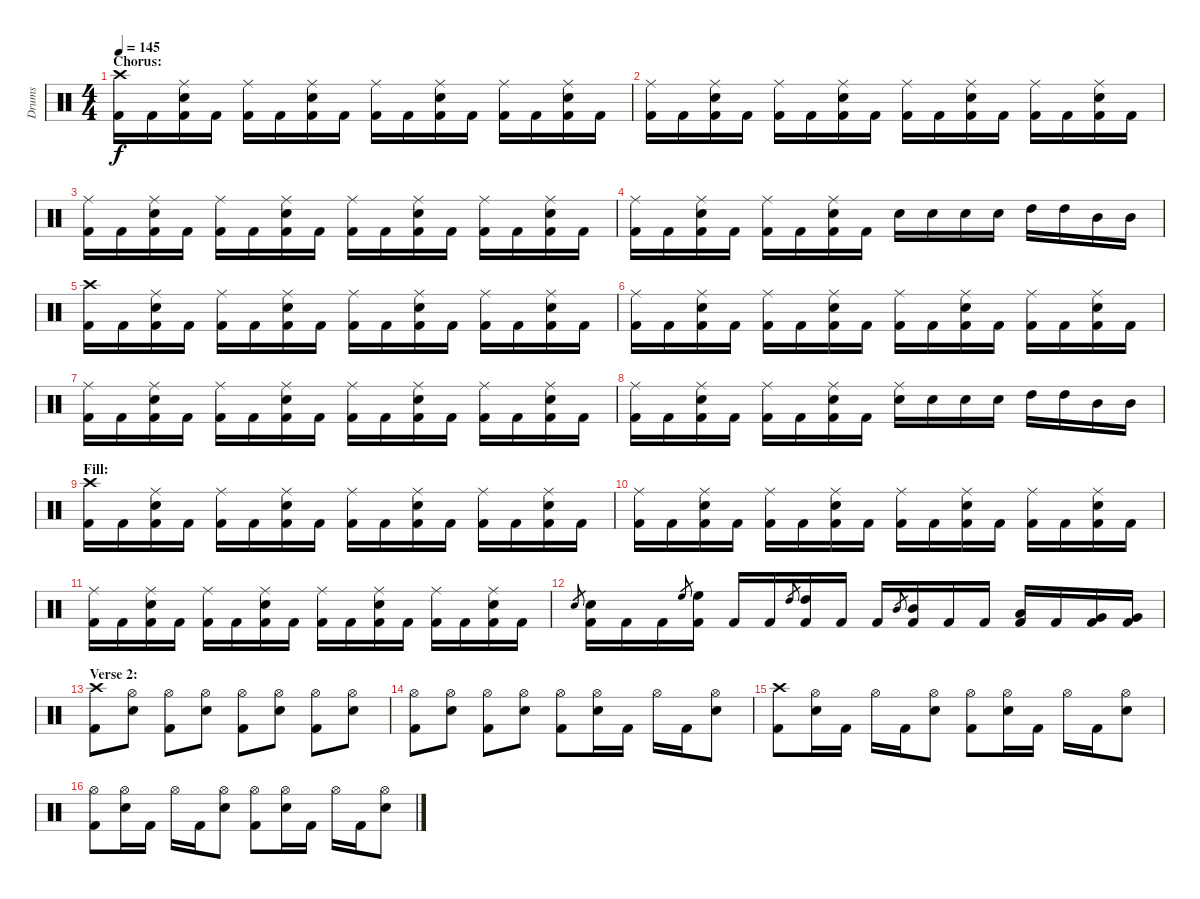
\track ("Drums" "Drums") {instrument percussion}
\staff {score}
\articulation defaults
\ts (4 4)
\section ("" "Chorus:")
\tempo 145
\clef neutral
\ks c
("Crash high (hit)" "Kick (hit) 2").16{dy f} "Kick (hit) 2".16 ("Ride (middle)" "Electric Snare (hit)" "Kick (hit) 2").16 "Kick (hit) 2".16 ("Ride (middle)" "Kick (hit) 2").16 "Kick (hit) 2".16 ("Ride (middle)" "Electric Snare (hit)" "Kick (hit) 2").16 "Kick (hit) 2".16 ("Ride (middle)" "Kick (hit) 2").16 "Kick (hit) 2".16 ("Ride (middle)" "Electric Snare (hit)" "Kick (hit) 2").16 "Kick (hit) 2".16 ("Ride (middle)" "Kick (hit) 2").16 "Kick (hit) 2".16 ("Ride (middle)" "Electric Snare (hit)" "Kick (hit) 2").16 "Kick (hit) 2".16 |
("Ride (middle)" "Kick (hit) 2").16 "Kick (hit) 2".16 ("Ride (middle)" "Electric Snare (hit)" "Kick (hit) 2").16 "Kick (hit) 2".16 ("Ride (middle)" "Kick (hit) 2").16 "Kick (hit) 2".16 ("Ride (middle)" "Electric Snare (hit)" "Kick (hit) 2").16 "Kick (hit) 2".16 ("Ride (middle)" "Kick (hit) 2").16 "Kick (hit) 2".16 ("Ride (middle)" "Electric Snare (hit)" "Kick (hit) 2").16 "Kick (hit) 2".16 ("Ride (middle)" "Kick (hit) 2").16 "Kick (hit) 2".16 ("Ride (middle)" "Electric Snare (hit)" "Kick (hit) 2").16 "Kick (hit) 2".16 |
("Ride (middle)" "Kick (hit) 2").16 "Kick (hit) 2".16 ("Ride (middle)" "Electric Snare (hit)" "Kick (hit) 2").16 "Kick (hit) 2".16 ("Ride (middle)" "Kick (hit) 2").16 "Kick (hit) 2".16 ("Ride (middle)" "Electric Snare (hit)" "Kick (hit) 2").16 "Kick (hit) 2".16 ("Ride (middle)" "Kick (hit) 2").16 "Kick (hit) 2".16 ("Ride (middle)" "Electric Snare (hit)" "Kick (hit) 2").16 "Kick (hit) 2".16 ("Ride (middle)" "Kick (hit) 2").16 "Kick (hit) 2".16 ("Ride (middle)" "Electric Snare (hit)" "Kick (hit) 2").16 "Kick (hit) 2".16 |
("Ride (middle)" "Kick (hit) 2").16 "Kick (hit) 2".16 ("Ride (middle)" "Electric Snare (hit)" "Kick (hit) 2").16 "Kick (hit) 2".16 ("Ride (middle)" "Kick (hit) 2").16 "Kick (hit) 2".16 ("Ride (middle)" "Electric Snare (hit)" "Kick (hit) 2").16 "Kick (hit) 2".16 "Electric Snare (hit)".16 "Electric Snare (hit)".16 "Electric Snare (hit)".16 "Electric Snare (hit)".16 "High Tom (hit)".16 "High Tom (hit)".16 "Mid Tom (hit)".16 "Mid Tom (hit)".16 |
("Crash high (hit)" "Kick (hit) 2").16 "Kick (hit) 2".16 ("Ride (middle)" "Electric Snare (hit)" "Kick (hit) 2").16 "Kick (hit) 2".16 ("Ride (middle)" "Kick (hit) 2").16 "Kick (hit) 2".16 ("Ride (middle)" "Electric Snare (hit)" "Kick (hit) 2").16 "Kick (hit) 2".16 ("Ride (middle)" "Kick (hit) 2").16 "Kick (hit) 2".16 ("Ride (middle)" "Electric Snare (hit)" "Kick (hit) 2").16 "Kick (hit) 2".16 ("Ride (middle)" "Kick (hit) 2").16 "Kick (hit) 2".16 ("Ride (middle)" "Electric Snare (hit)" "Kick (hit) 2").16 "Kick (hit) 2".16 |
("Ride (middle)" "Kick (hit) 2").16 "Kick (hit) 2".16 ("Ride (middle)" "Electric Snare (hit)" "Kick (hit) 2").16 "Kick (hit) 2".16 ("Ride (middle)" "Kick (hit) 2").16 "Kick (hit) 2".16 ("Ride (middle)" "Electric Snare (hit)" "Kick (hit) 2").16 "Kick (hit) 2".16 ("Ride (middle)" "Kick (hit) 2").16 "Kick (hit) 2".16 ("Ride (middle)" "Electric Snare (hit)" "Kick (hit) 2").16 "Kick (hit) 2".16 ("Ride (middle)" "Kick (hit) 2").16 "Kick (hit) 2".16 ("Ride (middle)" "Electric Snare (hit)" "Kick (hit) 2").16 "Kick (hit) 2".16 |
("Ride (middle)" "Kick (hit) 2").16 "Kick (hit) 2".16 ("Ride (middle)" "Electric Snare (hit)" "Kick (hit) 2").16 "Kick (hit) 2".16 ("Ride (middle)" "Kick (hit) 2").16 "Kick (hit) 2".16 ("Ride (middle)" "Electric Snare (hit)" "Kick (hit) 2").16 "Kick (hit) 2".16 ("Ride (middle)" "Kick (hit) 2").16 "Kick (hit) 2".16 ("Ride (middle)" "Electric Snare (hit)" "Kick (hit) 2").16 "Kick (hit) 2".16 ("Ride (middle)" "Kick (hit) 2").16 "Kick (hit) 2".16 ("Ride (middle)" "Electric Snare (hit)" "Kick (hit) 2").16 "Kick (hit) 2".16 |
("Ride (middle)" "Kick (hit) 2").16 "Kick (hit) 2".16 ("Ride (middle)" "Electric Snare (hit)" "Kick (hit) 2").16 "Kick (hit) 2".16 ("Ride (middle)" "Kick (hit) 2").16 "Kick (hit) 2".16 ("Ride (middle)" "Electric Snare (hit)" "Kick (hit) 2").16 "Kick (hit) 2".16 ("Ride (middle)" "Electric Snare (hit)").16 "Electric Snare (hit)".16 "Electric Snare (hit)".16 "Electric Snare (hit)".16 "High Tom (hit)".16 "High Tom (hit)".16 "Mid Tom (hit)".16 "Mid Tom (hit)".16 |
\section ("" "Fill:")
("Crash high (hit)" "Kick (hit) 2").16 "Kick (hit) 2".16 ("Ride (middle)" "Electric Snare (hit)" "Kick (hit) 2").16 "Kick (hit) 2".16 ("Ride (middle)" "Kick (hit) 2").16 "Kick (hit) 2".16 ("Ride (middle)" "Electric Snare (hit)" "Kick (hit) 2").16 "Kick (hit) 2".16 ("Ride (middle)" "Kick (hit) 2").16 "Kick (hit) 2".16 ("Ride (middle)" "Electric Snare (hit)" "Kick (hit) 2").16 "Kick (hit) 2".16 ("Ride (middle)" "Kick (hit) 2").16 "Kick (hit) 2".16 ("Ride (middle)" "Electric Snare (hit)" "Kick (hit) 2").16 "Kick (hit) 2".16 |
("Ride (middle)" "Kick (hit) 2").16 "Kick (hit) 2".16 ("Ride (middle)" "Electric Snare (hit)" "Kick (hit) 2").16 "Kick (hit) 2".16 ("Ride (middle)" "Kick (hit) 2").16 "Kick (hit) 2".16 ("Ride (middle)" "Electric Snare (hit)" "Kick (hit) 2").16 "Kick (hit) 2".16 ("Ride (middle)" "Kick (hit) 2").16 "Kick (hit) 2".16 ("Ride (middle)" "Electric Snare (hit)" "Kick (hit) 2").16 "Kick (hit) 2".16 ("Ride (middle)" "Kick (hit) 2").16 "Kick (hit) 2".16 ("Ride (middle)" "Electric Snare (hit)" "Kick (hit) 2").16 "Kick (hit) 2".16 |
("Ride (middle)" "Kick (hit) 2").16 "Kick (hit) 2".16 ("Ride (middle)" "Electric Snare (hit)" "Kick (hit) 2").16 "Kick (hit) 2".16 ("Ride (middle)" "Kick (hit) 2").16 "Kick (hit) 2".16 ("Ride (middle)" "Electric Snare (hit)" "Kick (hit) 2").16 "Kick (hit) 2".16 ("Ride (middle)" "Kick (hit) 2").16 "Kick (hit) 2".16 ("Ride (middle)" "Electric Snare (hit)" "Kick (hit) 2").16 "Kick (hit) 2".16 ("Ride (middle)" "Kick (hit) 2").16 "Kick (hit) 2".16 ("Ride (middle)" "Electric Snare (hit)" "Kick (hit) 2").16 "Kick (hit) 2".16 |
"Electric Snare (hit)".8{gr} ("Electric Snare (hit)" "Kick (hit) 2").16 "Kick (hit) 2".16 "Kick (hit) 2".16 "High Floor Tom (hit)".8{gr} ("High Floor Tom (hit)" "Kick (hit) 2").16 "Kick (hit) 2".16 "Kick (hit) 2".16 "High Tom (hit)".8{gr} ("High Tom (hit)" "Kick (hit) 2").16 "Kick (hit) 2".16 "Kick (hit) 2".16 "Mid Tom (hit)".8{gr} ("Mid Tom (hit)" "Kick (hit) 2").16 "Kick (hit) 2".16 "Kick (hit) 2".16 ("Low Tom (hit)" "Kick (hit) 2").16 "Kick (hit) 2".16 ("Very Low Tom (hit)" "Kick (hit) 2").16 ("Very Low Tom (hit)" "Kick (hit) 2").16 |
\section ("" "Verse 2:")
("Crash high (hit)" "Kick (hit) 2").8 ("Hi-Hat (open)" "Electric Snare (hit)").8 ("Hi-Hat (open)" "Kick (hit) 2").8 ("Hi-Hat (open)" "Electric Snare (hit)").8 ("Hi-Hat (open)" "Kick (hit) 2").8 ("Hi-Hat (open)" "Electric Snare (hit)").8 ("Hi-Hat (open)" "Kick (hit) 2").8 ("Hi-Hat (open)" "Electric Snare (hit)").8 |
("Hi-Hat (open)" "Kick (hit) 2").8 ("Hi-Hat (open)" "Electric Snare (hit)").8 ("Hi-Hat (open)" "Kick (hit) 2").8 ("Hi-Hat (open)" "Electric Snare (hit)").8 ("Hi-Hat (open)" "Kick (hit) 2").8 ("Hi-Hat (open)" "Electric Snare (hit)").16 "Kick (hit) 2".16 "Hi-Hat (open)".16 "Kick (hit) 2".16 ("Hi-Hat (open)" "Electric Snare (hit)").8 |
("Crash high (hit)" "Kick (hit) 2").8 ("Hi-Hat (open)" "Electric Snare (hit)").16 "Kick (hit) 2".16 "Hi-Hat (open)".16 "Kick (hit) 2".16 ("Hi-Hat (open)" "Electric Snare (hit)").8 ("Hi-Hat (open)" "Kick (hit) 2").8 ("Hi-Hat (open)" "Electric Snare (hit)").16 "Kick (hit) 2".16 "Hi-Hat (open)".16 "Kick (hit) 2".16 ("Hi-Hat (open)" "Electric Snare (hit)").8 |
("Hi-Hat (open)" "Kick (hit) 2").8 ("Hi-Hat (open)" "Electric Snare (hit)").16 "Kick (hit) 2".16 "Hi-Hat (open)".16 "Kick (hit) 2".16 ("Hi-Hat (open)" "Electric Snare (hit)").8 ("Hi-Hat (open)" "Kick (hit) 2").8 ("Hi-Hat (open)" "Electric Snare (hit)").16 "Kick (hit) 2".16 "Hi-Hat (open)".16 "Kick (hit) 2".16 ("Hi-Hat (open)" "Electric Snare (hit)").8
